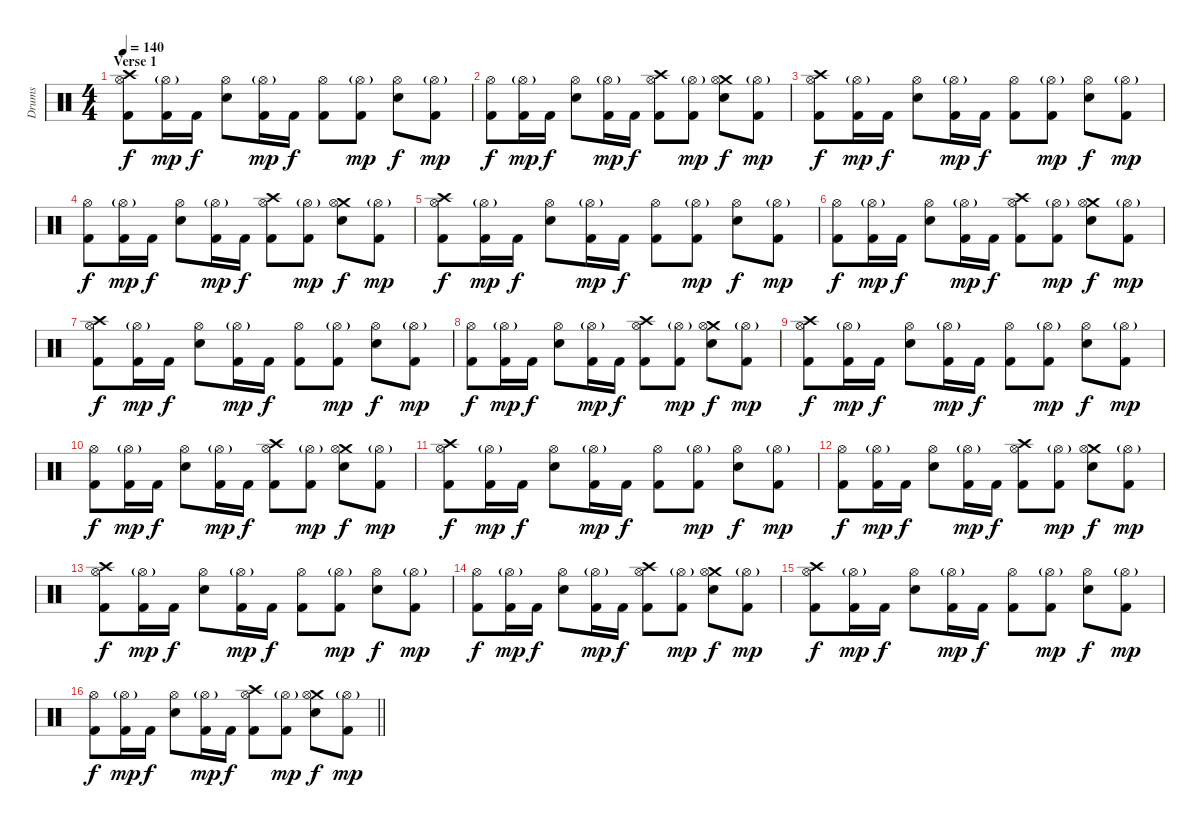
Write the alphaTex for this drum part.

\track ("Drums" "Drums") {instrument percussion}
\staff {score}
\articulation defaults
\ts (4 4)
\section ("" "Verse 1")
\tempo 140
\clef neutral
\ks c
("Crash high (hit)" "Hi-Hat (open)" "Kick (hit) 2").8{dy f} ("Hi-Hat (open)"{g} "Kick (hit) 2").16{dy mp} "Kick (hit) 2".16{dy f} ("Hi-Hat (open)" "Snare (hit) 2").8 ("Hi-Hat (open)"{g} "Kick (hit) 2").16{dy mp} "Kick (hit) 2".16{dy f} ("Hi-Hat (open)" "Kick (hit) 2").8 ("Hi-Hat (open)"{g} "Kick (hit) 2").8{dy mp} ("Hi-Hat (open)" "Snare (hit) 2").8{dy f} ("Hi-Hat (open)"{g} "Kick (hit) 2").8{dy mp} |
("Hi-Hat (open)" "Kick (hit) 2").8{dy f} ("Hi-Hat (open)"{g} "Kick (hit) 2").16{dy mp} "Kick (hit) 2".16{dy f} ("Hi-Hat (open)" "Snare (hit) 2").8 ("Hi-Hat (open)"{g} "Kick (hit) 2").16{dy mp} "Kick (hit) 2".16{dy f} ("Crash high (hit)" "Hi-Hat (open)" "Kick (hit) 2").8 ("Hi-Hat (open)"{g} "Kick (hit) 2").8{dy mp} ("Crash medium (hit)" "Hi-Hat (open)" "Snare (hit) 2").8{dy f} ("Hi-Hat (open)"{g} "Kick (hit) 2").8{dy mp} |
("Crash high (hit)" "Hi-Hat (open)" "Kick (hit) 2").8{dy f} ("Hi-Hat (open)"{g} "Kick (hit) 2").16{dy mp} "Kick (hit) 2".16{dy f} ("Hi-Hat (open)" "Snare (hit) 2").8 ("Hi-Hat (open)"{g} "Kick (hit) 2").16{dy mp} "Kick (hit) 2".16{dy f} ("Hi-Hat (open)" "Kick (hit) 2").8 ("Hi-Hat (open)"{g} "Kick (hit) 2").8{dy mp} ("Hi-Hat (open)" "Snare (hit) 2").8{dy f} ("Hi-Hat (open)"{g} "Kick (hit) 2").8{dy mp} |
("Hi-Hat (open)" "Kick (hit) 2").8{dy f} ("Hi-Hat (open)"{g} "Kick (hit) 2").16{dy mp} "Kick (hit) 2".16{dy f} ("Hi-Hat (open)" "Snare (hit) 2").8 ("Hi-Hat (open)"{g} "Kick (hit) 2").16{dy mp} "Kick (hit) 2".16{dy f} ("Crash high (hit)" "Hi-Hat (open)" "Kick (hit) 2").8 ("Hi-Hat (open)"{g} "Kick (hit) 2").8{dy mp} ("Crash medium (hit)" "Hi-Hat (open)" "Snare (hit) 2").8{dy f} ("Hi-Hat (open)"{g} "Kick (hit) 2").8{dy mp} |
("Crash high (hit)" "Hi-Hat (open)" "Kick (hit) 2").8{dy f} ("Hi-Hat (open)"{g} "Kick (hit) 2").16{dy mp} "Kick (hit) 2".16{dy f} ("Hi-Hat (open)" "Snare (hit) 2").8 ("Hi-Hat (open)"{g} "Kick (hit) 2").16{dy mp} "Kick (hit) 2".16{dy f} ("Hi-Hat (open)" "Kick (hit) 2").8 ("Hi-Hat (open)"{g} "Kick (hit) 2").8{dy mp} ("Hi-Hat (open)" "Snare (hit) 2").8{dy f} ("Hi-Hat (open)"{g} "Kick (hit) 2").8{dy mp} |
("Hi-Hat (open)" "Kick (hit) 2").8{dy f} ("Hi-Hat (open)"{g} "Kick (hit) 2").16{dy mp} "Kick (hit) 2".16{dy f} ("Hi-Hat (open)" "Snare (hit) 2").8 ("Hi-Hat (open)"{g} "Kick (hit) 2").16{dy mp} "Kick (hit) 2".16{dy f} ("Crash high (hit)" "Hi-Hat (open)" "Kick (hit) 2").8 ("Hi-Hat (open)"{g} "Kick (hit) 2").8{dy mp} ("Crash medium (hit)" "Hi-Hat (open)" "Snare (hit) 2").8{dy f} ("Hi-Hat (open)"{g} "Kick (hit) 2").8{dy mp} |
("Crash high (hit)" "Hi-Hat (open)" "Kick (hit) 2").8{dy f} ("Hi-Hat (open)"{g} "Kick (hit) 2").16{dy mp} "Kick (hit) 2".16{dy f} ("Hi-Hat (open)" "Snare (hit) 2").8 ("Hi-Hat (open)"{g} "Kick (hit) 2").16{dy mp} "Kick (hit) 2".16{dy f} ("Hi-Hat (open)" "Kick (hit) 2").8 ("Hi-Hat (open)"{g} "Kick (hit) 2").8{dy mp} ("Hi-Hat (open)" "Snare (hit) 2").8{dy f} ("Hi-Hat (open)"{g} "Kick (hit) 2").8{dy mp} |
("Hi-Hat (open)" "Kick (hit) 2").8{dy f} ("Hi-Hat (open)"{g} "Kick (hit) 2").16{dy mp} "Kick (hit) 2".16{dy f} ("Hi-Hat (open)" "Snare (hit) 2").8 ("Hi-Hat (open)"{g} "Kick (hit) 2").16{dy mp} "Kick (hit) 2".16{dy f} ("Crash high (hit)" "Hi-Hat (open)" "Kick (hit) 2").8 ("Hi-Hat (open)"{g} "Kick (hit) 2").8{dy mp} ("Crash medium (hit)" "Hi-Hat (open)" "Snare (hit) 2").8{dy f} ("Hi-Hat (open)"{g} "Kick (hit) 2").8{dy mp} |
("Crash high (hit)" "Hi-Hat (open)" "Kick (hit) 2").8{dy f} ("Hi-Hat (open)"{g} "Kick (hit) 2").16{dy mp} "Kick (hit) 2".16{dy f} ("Hi-Hat (open)" "Snare (hit) 2").8 ("Hi-Hat (open)"{g} "Kick (hit) 2").16{dy mp} "Kick (hit) 2".16{dy f} ("Hi-Hat (open)" "Kick (hit) 2").8 ("Hi-Hat (open)"{g} "Kick (hit) 2").8{dy mp} ("Hi-Hat (open)" "Snare (hit) 2").8{dy f} ("Hi-Hat (open)"{g} "Kick (hit) 2").8{dy mp} |
("Hi-Hat (open)" "Kick (hit) 2").8{dy f} ("Hi-Hat (open)"{g} "Kick (hit) 2").16{dy mp} "Kick (hit) 2".16{dy f} ("Hi-Hat (open)" "Snare (hit) 2").8 ("Hi-Hat (open)"{g} "Kick (hit) 2").16{dy mp} "Kick (hit) 2".16{dy f} ("Crash high (hit)" "Hi-Hat (open)" "Kick (hit) 2").8 ("Hi-Hat (open)"{g} "Kick (hit) 2").8{dy mp} ("Crash medium (hit)" "Hi-Hat (open)" "Snare (hit) 2").8{dy f} ("Hi-Hat (open)"{g} "Kick (hit) 2").8{dy mp} |
("Crash high (hit)" "Hi-Hat (open)" "Kick (hit) 2").8{dy f} ("Hi-Hat (open)"{g} "Kick (hit) 2").16{dy mp} "Kick (hit) 2".16{dy f} ("Hi-Hat (open)" "Snare (hit) 2").8 ("Hi-Hat (open)"{g} "Kick (hit) 2").16{dy mp} "Kick (hit) 2".16{dy f} ("Hi-Hat (open)" "Kick (hit) 2").8 ("Hi-Hat (open)"{g} "Kick (hit) 2").8{dy mp} ("Hi-Hat (open)" "Snare (hit) 2").8{dy f} ("Hi-Hat (open)"{g} "Kick (hit) 2").8{dy mp} |
("Hi-Hat (open)" "Kick (hit) 2").8{dy f} ("Hi-Hat (open)"{g} "Kick (hit) 2").16{dy mp} "Kick (hit) 2".16{dy f} ("Hi-Hat (open)" "Snare (hit) 2").8 ("Hi-Hat (open)"{g} "Kick (hit) 2").16{dy mp} "Kick (hit) 2".16{dy f} ("Crash high (hit)" "Hi-Hat (open)" "Kick (hit) 2").8 ("Hi-Hat (open)"{g} "Kick (hit) 2").8{dy mp} ("Crash medium (hit)" "Hi-Hat (open)" "Snare (hit) 2").8{dy f} ("Hi-Hat (open)"{g} "Kick (hit) 2").8{dy mp} |
("Crash high (hit)" "Hi-Hat (open)" "Kick (hit) 2").8{dy f} ("Hi-Hat (open)"{g} "Kick (hit) 2").16{dy mp} "Kick (hit) 2".16{dy f} ("Hi-Hat (open)" "Snare (hit) 2").8 ("Hi-Hat (open)"{g} "Kick (hit) 2").16{dy mp} "Kick (hit) 2".16{dy f} ("Hi-Hat (open)" "Kick (hit) 2").8 ("Hi-Hat (open)"{g} "Kick (hit) 2").8{dy mp} ("Hi-Hat (open)" "Snare (hit) 2").8{dy f} ("Hi-Hat (open)"{g} "Kick (hit) 2").8{dy mp} |
("Hi-Hat (open)" "Kick (hit) 2").8{dy f} ("Hi-Hat (open)"{g} "Kick (hit) 2").16{dy mp} "Kick (hit) 2".16{dy f} ("Hi-Hat (open)" "Snare (hit) 2").8 ("Hi-Hat (open)"{g} "Kick (hit) 2").16{dy mp} "Kick (hit) 2".16{dy f} ("Crash high (hit)" "Hi-Hat (open)" "Kick (hit) 2").8 ("Hi-Hat (open)"{g} "Kick (hit) 2").8{dy mp} ("Crash medium (hit)" "Hi-Hat (open)" "Snare (hit) 2").8{dy f} ("Hi-Hat (open)"{g} "Kick (hit) 2").8{dy mp} |
("Crash high (hit)" "Hi-Hat (open)" "Kick (hit) 2").8{dy f} ("Hi-Hat (open)"{g} "Kick (hit) 2").16{dy mp} "Kick (hit) 2".16{dy f} ("Hi-Hat (open)" "Snare (hit) 2").8 ("Hi-Hat (open)"{g} "Kick (hit) 2").16{dy mp} "Kick (hit) 2".16{dy f} ("Hi-Hat (open)" "Kick (hit) 2").8 ("Hi-Hat (open)"{g} "Kick (hit) 2").8{dy mp} ("Hi-Hat (open)" "Snare (hit) 2").8{dy f} ("Hi-Hat (open)"{g} "Kick (hit) 2").8{dy mp} |
\barLineRight lightlight
("Hi-Hat (open)" "Kick (hit) 2").8{dy f} ("Hi-Hat (open)"{g} "Kick (hit) 2").16{dy mp} "Kick (hit) 2".16{dy f} ("Hi-Hat (open)" "Snare (hit) 2").8 ("Hi-Hat (open)"{g} "Kick (hit) 2").16{dy mp} "Kick (hit) 2".16{dy f} ("Crash high (hit)" "Hi-Hat (open)" "Kick (hit) 2").8 ("Hi-Hat (open)"{g} "Kick (hit) 2").8{dy mp} ("Crash medium (hit)" "Hi-Hat (open)" "Snare (hit) 2").8{dy f} ("Hi-Hat (open)"{g} "Kick (hit) 2").8{dy mp}
